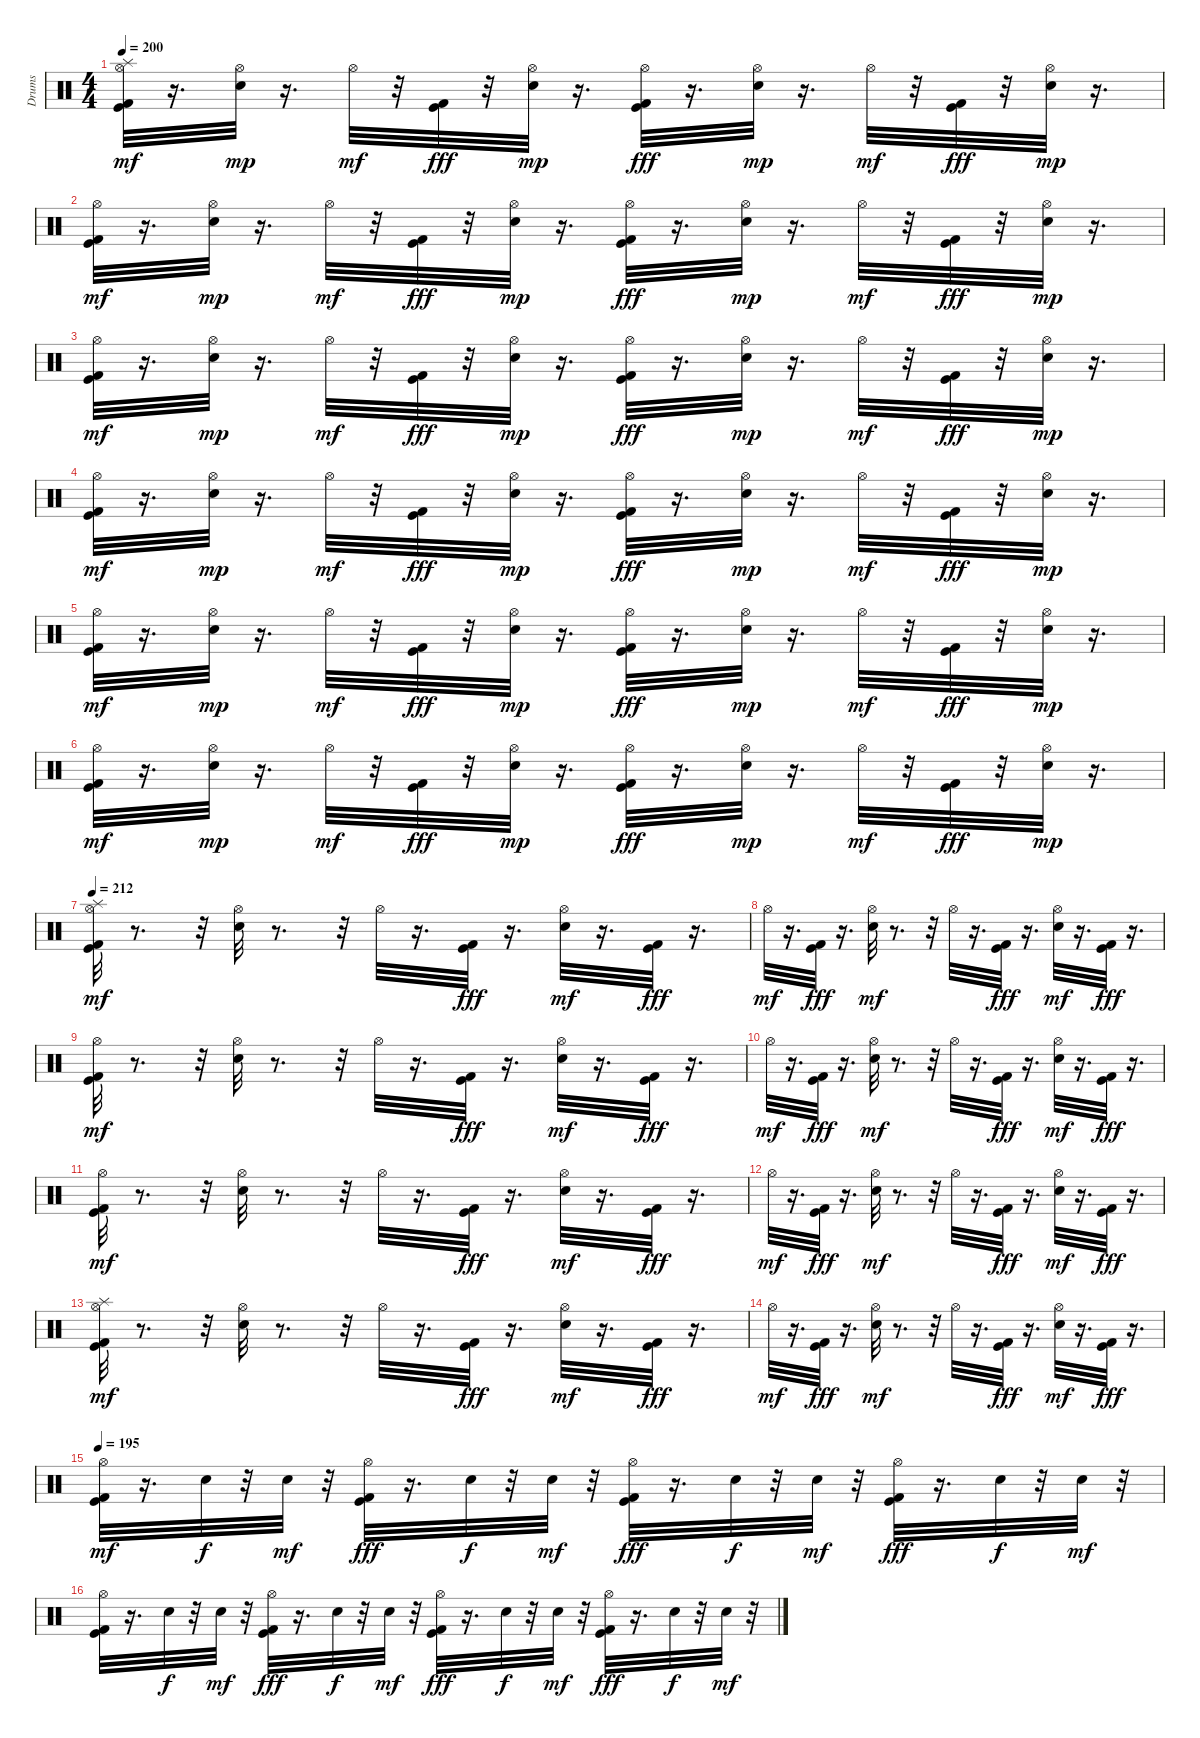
\track ("Drums" "Drums") {instrument percussion}
\staff {score}
\articulation defaults
\ts (4 4)
\tempo 200
\clef neutral
\ks c
("Kick (hit) 2" "Kick (hit)" "Splash (hit)" "Hi-Hat (open)").32{dy mf} r.16{d} ("Hi-Hat (open)" "Snare (hit) 2").32{dy mp} r.16{d} "Hi-Hat (open)".32{dy mf} r.32 ("Kick (hit)" "Kick (hit) 2").32{dy fff} r.32 ("Hi-Hat (open)" "Snare (hit) 2").32{dy mp} r.16{d} ("Hi-Hat (open)" "Kick (hit) 2" "Kick (hit)").32{dy fff} r.16{d} ("Hi-Hat (open)" "Snare (hit) 2").32{dy mp} r.16{d} "Hi-Hat (open)".32{dy mf} r.32 ("Kick (hit)" "Kick (hit) 2").32{dy fff} r.32 ("Hi-Hat (open)" "Snare (hit) 2").32{dy mp} r.16{d} |
("Kick (hit) 2" "Kick (hit)" "Hi-Hat (open)").32{dy mf} r.16{d} ("Hi-Hat (open)" "Snare (hit) 2").32{dy mp} r.16{d} "Hi-Hat (open)".32{dy mf} r.32 ("Kick (hit)" "Kick (hit) 2").32{dy fff} r.32 ("Hi-Hat (open)" "Snare (hit) 2").32{dy mp} r.16{d} ("Hi-Hat (open)" "Kick (hit) 2" "Kick (hit)").32{dy fff} r.16{d} ("Hi-Hat (open)" "Snare (hit) 2").32{dy mp} r.16{d} "Hi-Hat (open)".32{dy mf} r.32 ("Kick (hit)" "Kick (hit) 2").32{dy fff} r.32 ("Hi-Hat (open)" "Snare (hit) 2").32{dy mp} r.16{d} |
("Kick (hit) 2" "Kick (hit)" "Hi-Hat (open)").32{dy mf} r.16{d} ("Hi-Hat (open)" "Snare (hit) 2").32{dy mp} r.16{d} "Hi-Hat (open)".32{dy mf} r.32 ("Kick (hit)" "Kick (hit) 2").32{dy fff} r.32 ("Hi-Hat (open)" "Snare (hit) 2").32{dy mp} r.16{d} ("Hi-Hat (open)" "Kick (hit) 2" "Kick (hit)").32{dy fff} r.16{d} ("Hi-Hat (open)" "Snare (hit) 2").32{dy mp} r.16{d} "Hi-Hat (open)".32{dy mf} r.32 ("Kick (hit)" "Kick (hit) 2").32{dy fff} r.32 ("Hi-Hat (open)" "Snare (hit) 2").32{dy mp} r.16{d} |
("Kick (hit) 2" "Kick (hit)" "Hi-Hat (open)").32{dy mf} r.16{d} ("Hi-Hat (open)" "Snare (hit) 2").32{dy mp} r.16{d} "Hi-Hat (open)".32{dy mf} r.32 ("Kick (hit)" "Kick (hit) 2").32{dy fff} r.32 ("Hi-Hat (open)" "Snare (hit) 2").32{dy mp} r.16{d} ("Hi-Hat (open)" "Kick (hit) 2" "Kick (hit)").32{dy fff} r.16{d} ("Hi-Hat (open)" "Snare (hit) 2").32{dy mp} r.16{d} "Hi-Hat (open)".32{dy mf} r.32 ("Kick (hit)" "Kick (hit) 2").32{dy fff} r.32 ("Hi-Hat (open)" "Snare (hit) 2").32{dy mp} r.16{d} |
("Kick (hit) 2" "Kick (hit)" "Hi-Hat (open)").32{dy mf} r.16{d} ("Hi-Hat (open)" "Snare (hit) 2").32{dy mp} r.16{d} "Hi-Hat (open)".32{dy mf} r.32 ("Kick (hit)" "Kick (hit) 2").32{dy fff} r.32 ("Hi-Hat (open)" "Snare (hit) 2").32{dy mp} r.16{d} ("Hi-Hat (open)" "Kick (hit) 2" "Kick (hit)").32{dy fff} r.16{d} ("Hi-Hat (open)" "Snare (hit) 2").32{dy mp} r.16{d} "Hi-Hat (open)".32{dy mf} r.32 ("Kick (hit)" "Kick (hit) 2").32{dy fff} r.32 ("Hi-Hat (open)" "Snare (hit) 2").32{dy mp} r.16{d} |
("Kick (hit) 2" "Kick (hit)" "Hi-Hat (open)").32{dy mf} r.16{d} ("Hi-Hat (open)" "Snare (hit) 2").32{dy mp} r.16{d} "Hi-Hat (open)".32{dy mf} r.32 ("Kick (hit)" "Kick (hit) 2").32{dy fff} r.32 ("Hi-Hat (open)" "Snare (hit) 2").32{dy mp} r.16{d} ("Hi-Hat (open)" "Kick (hit) 2" "Kick (hit)").32{dy fff} r.16{d} ("Hi-Hat (open)" "Snare (hit) 2").32{dy mp} r.16{d} "Hi-Hat (open)".32{dy mf} r.32 ("Kick (hit)" "Kick (hit) 2").32{dy fff} r.32 ("Hi-Hat (open)" "Snare (hit) 2").32{dy mp} r.16{d} |
\tempo 212
("Splash (hit)" "Kick (hit) 2" "Kick (hit)" "Hi-Hat (open)").32{dy mf} r.8{d} r.32 ("Snare (hit) 2" "Hi-Hat (open)").32 r.8{d} r.32 "Hi-Hat (open)".32 r.16{d} ("Kick (hit)" "Kick (hit) 2").32{dy fff} r.16{d} ("Hi-Hat (open)" "Snare (hit) 2").32{dy mf} r.16{d} ("Kick (hit)" "Kick (hit) 2").32{dy fff} r.16{d} |
"Hi-Hat (open)".32{dy mf} r.16{d} ("Kick (hit)" "Kick (hit) 2").32{dy fff} r.16{d} ("Hi-Hat (open)" "Snare (hit) 2").32{dy mf} r.8{d} r.32 "Hi-Hat (open)".32 r.16{d} ("Kick (hit)" "Kick (hit) 2").32{dy fff} r.16{d} ("Hi-Hat (open)" "Snare (hit) 2").32{dy mf} r.16{d} ("Kick (hit)" "Kick (hit) 2").32{dy fff} r.16{d} |
("Kick (hit) 2" "Kick (hit)" "Hi-Hat (open)").32{dy mf} r.8{d} r.32 ("Snare (hit) 2" "Hi-Hat (open)").32 r.8{d} r.32 "Hi-Hat (open)".32 r.16{d} ("Kick (hit)" "Kick (hit) 2").32{dy fff} r.16{d} ("Hi-Hat (open)" "Snare (hit) 2").32{dy mf} r.16{d} ("Kick (hit)" "Kick (hit) 2").32{dy fff} r.16{d} |
"Hi-Hat (open)".32{dy mf} r.16{d} ("Kick (hit)" "Kick (hit) 2").32{dy fff} r.16{d} ("Hi-Hat (open)" "Snare (hit) 2").32{dy mf} r.8{d} r.32 "Hi-Hat (open)".32 r.16{d} ("Kick (hit)" "Kick (hit) 2").32{dy fff} r.16{d} ("Hi-Hat (open)" "Snare (hit) 2").32{dy mf} r.16{d} ("Kick (hit)" "Kick (hit) 2").32{dy fff} r.16{d} |
("Kick (hit) 2" "Kick (hit)" "Hi-Hat (open)").32{dy mf} r.8{d} r.32 ("Snare (hit) 2" "Hi-Hat (open)").32 r.8{d} r.32 "Hi-Hat (open)".32 r.16{d} ("Kick (hit)" "Kick (hit) 2").32{dy fff} r.16{d} ("Hi-Hat (open)" "Snare (hit) 2").32{dy mf} r.16{d} ("Kick (hit)" "Kick (hit) 2").32{dy fff} r.16{d} |
"Hi-Hat (open)".32{dy mf} r.16{d} ("Kick (hit)" "Kick (hit) 2").32{dy fff} r.16{d} ("Hi-Hat (open)" "Snare (hit) 2").32{dy mf} r.8{d} r.32 "Hi-Hat (open)".32 r.16{d} ("Kick (hit)" "Kick (hit) 2").32{dy fff} r.16{d} ("Hi-Hat (open)" "Snare (hit) 2").32{dy mf} r.16{d} ("Kick (hit)" "Kick (hit) 2").32{dy fff} r.16{d} |
("Kick (hit) 2" "Kick (hit)" "Hi-Hat (open)" "Splash (hit)").32{dy mf} r.8{d} r.32 ("Snare (hit) 2" "Hi-Hat (open)").32 r.8{d} r.32 "Hi-Hat (open)".32 r.16{d} ("Kick (hit)" "Kick (hit) 2").32{dy fff} r.16{d} ("Hi-Hat (open)" "Snare (hit) 2").32{dy mf} r.16{d} ("Kick (hit)" "Kick (hit) 2").32{dy fff} r.16{d} |
"Hi-Hat (open)".32{dy mf} r.16{d} ("Kick (hit)" "Kick (hit) 2").32{dy fff} r.16{d} ("Hi-Hat (open)" "Snare (hit) 2").32{dy mf} r.8{d} r.32 "Hi-Hat (open)".32 r.16{d} ("Kick (hit)" "Kick (hit) 2").32{dy fff} r.16{d} ("Hi-Hat (open)" "Snare (hit) 2").32{dy mf} r.16{d} ("Kick (hit)" "Kick (hit) 2").32{dy fff} r.16{d} |
\tempo 195
("Kick (hit) 2" "Kick (hit)" "Hi-Hat (open)").32{dy mf} r.16{d} "Snare (hit) 2".32{dy f} r.32 "Snare (hit) 2".32{dy mf} r.32 ("Hi-Hat (open)" "Kick (hit) 2" "Kick (hit)").32{dy fff} r.16{d} "Snare (hit) 2".32{dy f} r.32 "Snare (hit) 2".32{dy mf} r.32 ("Hi-Hat (open)" "Kick (hit) 2" "Kick (hit)").32{dy fff} r.16{d} "Snare (hit) 2".32{dy f} r.32 "Snare (hit) 2".32{dy mf} r.32 ("Hi-Hat (open)" "Kick (hit) 2" "Kick (hit)").32{dy fff} r.16{d} "Snare (hit) 2".32{dy f} r.32 "Snare (hit) 2".32{dy mf} r.32 |
("Kick (hit) 2" "Kick (hit)" "Hi-Hat (open)").32 r.16{d} "Snare (hit) 2".32{dy f} r.32 "Snare (hit) 2".32{dy mf} r.32 ("Hi-Hat (open)" "Kick (hit) 2" "Kick (hit)").32{dy fff} r.16{d} "Snare (hit) 2".32{dy f} r.32 "Snare (hit) 2".32{dy mf} r.32 ("Hi-Hat (open)" "Kick (hit) 2" "Kick (hit)").32{dy fff} r.16{d} "Snare (hit) 2".32{dy f} r.32 "Snare (hit) 2".32{dy mf} r.32 ("Hi-Hat (open)" "Kick (hit) 2" "Kick (hit)").32{dy fff} r.16{d} "Snare (hit) 2".32{dy f} r.32 "Snare (hit) 2".32{dy mf} r.32
